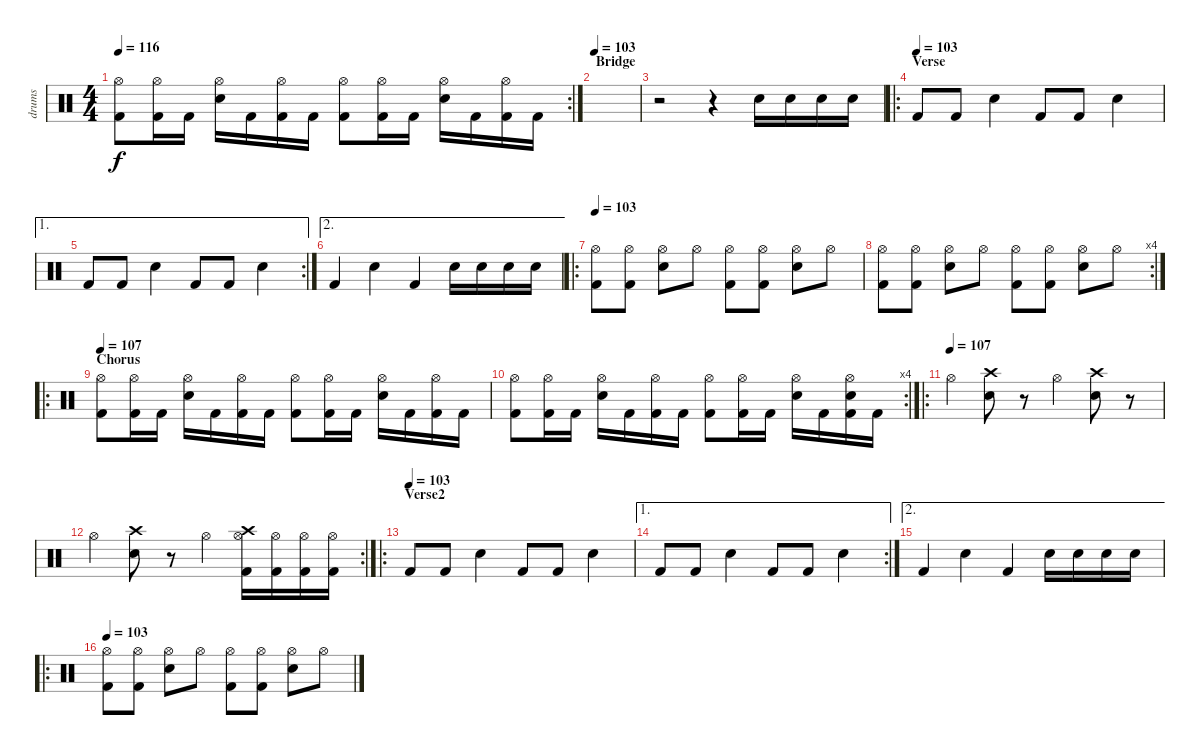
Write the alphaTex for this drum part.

\track ("drums" "drums") {instrument percussion}
\staff {score}
\articulation defaults
\rc 2
\ts (4 4)
\tempo 116
\clef neutral
\ks c
("Hi-Hat (open)" "Kick (hit) 2").8{dy f} ("Hi-Hat (open)" "Kick (hit) 2").16 "Kick (hit) 2".16 ("Hi-Hat (open)" "Electric Snare (hit)").16 "Kick (hit) 2".16 ("Hi-Hat (open)" "Kick (hit) 2").16 "Kick (hit) 2".16 ("Hi-Hat (open)" "Kick (hit) 2").8 ("Hi-Hat (open)" "Kick (hit) 2").16 "Kick (hit) 2".16 ("Hi-Hat (open)" "Electric Snare (hit)").16 "Kick (hit) 2".16 ("Hi-Hat (open)" "Kick (hit) 2").16 "Kick (hit) 2".16 |
\section ("" "Bridge")
\tempo 103
|
r.2 r.4 "Electric Snare (hit)".16 "Electric Snare (hit)".16 "Electric Snare (hit)".16 "Electric Snare (hit)".16 |
\ro
\section ("" "Verse")
\tempo (103)
"Kick (hit) 2".8 "Kick (hit) 2".8 "Electric Snare (hit)".4 "Kick (hit) 2".8 "Kick (hit) 2".8 "Electric Snare (hit)".4 |
\ae 1
\rc 2 "Kick (hit) 2".8 "Kick (hit) 2".8 "Electric Snare (hit)".4 "Kick (hit) 2".8 "Kick (hit) 2".8 "Electric Snare (hit)".4
|
\ae 2 "Kick (hit) 2".4 "Electric Snare (hit)".4 "Kick (hit) 2".4 "Electric Snare (hit)".16 "Electric Snare (hit)".16 "Electric Snare (hit)".16 "Electric Snare (hit)".16
|
\ro
\tempo 103
("Hi-Hat (open)" "Kick (hit) 2").8 ("Hi-Hat (open)" "Kick (hit) 2").8 ("Hi-Hat (open)" "Electric Snare (hit)").8 "Hi-Hat (open)".8 ("Hi-Hat (open)" "Kick (hit) 2").8 ("Hi-Hat (open)" "Kick (hit) 2").8 ("Hi-Hat (open)" "Electric Snare (hit)").8 "Hi-Hat (open)".8 |
\rc 4
("Hi-Hat (open)" "Kick (hit) 2").8 ("Hi-Hat (open)" "Kick (hit) 2").8 ("Hi-Hat (open)" "Electric Snare (hit)").8 "Hi-Hat (open)".8 ("Hi-Hat (open)" "Kick (hit) 2").8 ("Hi-Hat (open)" "Kick (hit) 2").8 ("Hi-Hat (open)" "Electric Snare (hit)").8 "Hi-Hat (open)".8 |
\ro
\section ("" "Chorus")
\tempo 107
("Hi-Hat (open)" "Kick (hit) 2").8 ("Hi-Hat (open)" "Kick (hit) 2").16 "Kick (hit) 2".16 ("Hi-Hat (open)" "Electric Snare (hit)").16 "Kick (hit) 2".16 ("Hi-Hat (open)" "Kick (hit) 2").16 "Kick (hit) 2".16 ("Hi-Hat (open)" "Kick (hit) 2").8 ("Hi-Hat (open)" "Kick (hit) 2").16 "Kick (hit) 2".16 ("Hi-Hat (open)" "Electric Snare (hit)").16 "Kick (hit) 2".16 ("Hi-Hat (open)" "Kick (hit) 2").16 "Kick (hit) 2".16 |
\rc 4
("Hi-Hat (open)" "Kick (hit) 2").8 ("Hi-Hat (open)" "Kick (hit) 2").16 "Kick (hit) 2".16 ("Hi-Hat (open)" "Electric Snare (hit)").16 "Kick (hit) 2".16 ("Hi-Hat (open)" "Kick (hit) 2").16 "Kick (hit) 2".16 ("Hi-Hat (open)" "Kick (hit) 2").8 ("Hi-Hat (open)" "Kick (hit) 2").16 "Kick (hit) 2".16 ("Hi-Hat (open)" "Electric Snare (hit)").16 "Kick (hit) 2".16 ("Hi-Hat (open)" "Electric Snare (hit)" "Kick (hit) 2").16 "Kick (hit) 2".16 |
\ro
\tempo (107)
"Hi-Hat (open)".4 ("Crash high (hit)" "Electric Snare (hit)").8 r.8 "Hi-Hat (open)".4 ("Crash high (hit)" "Electric Snare (hit)").8 r.8 |
\rc 2 "Hi-Hat (open)".4
("Crash high (hit)" "Electric Snare (hit)").8 r.8 "Hi-Hat (open)".4 ("Crash high (hit)" "Hi-Hat (open)" "Kick (hit) 2").16 ("Hi-Hat (open)" "Kick (hit) 2").16 ("Hi-Hat (open)" "Kick (hit) 2").16 ("Hi-Hat (open)" "Kick (hit) 2").16 |
\ro
\section ("" "Verse2")
\tempo (103)
"Kick (hit) 2".8 "Kick (hit) 2".8 "Electric Snare (hit)".4 "Kick (hit) 2".8 "Kick (hit) 2".8 "Electric Snare (hit)".4 |
\ae 1
\rc 2 "Kick (hit) 2".8 "Kick (hit) 2".8 "Electric Snare (hit)".4 "Kick (hit) 2".8 "Kick (hit) 2".8 "Electric Snare (hit)".4
|
\ae 2 "Kick (hit) 2".4 "Electric Snare (hit)".4 "Kick (hit) 2".4 "Electric Snare (hit)".16 "Electric Snare (hit)".16 "Electric Snare (hit)".16 "Electric Snare (hit)".16
|
\ro
\tempo 103
("Hi-Hat (open)" "Kick (hit) 2").8 ("Hi-Hat (open)" "Kick (hit) 2").8 ("Hi-Hat (open)" "Electric Snare (hit)").8 "Hi-Hat (open)".8 ("Hi-Hat (open)" "Kick (hit) 2").8 ("Hi-Hat (open)" "Kick (hit) 2").8 ("Hi-Hat (open)" "Electric Snare (hit)").8 "Hi-Hat (open)".8
